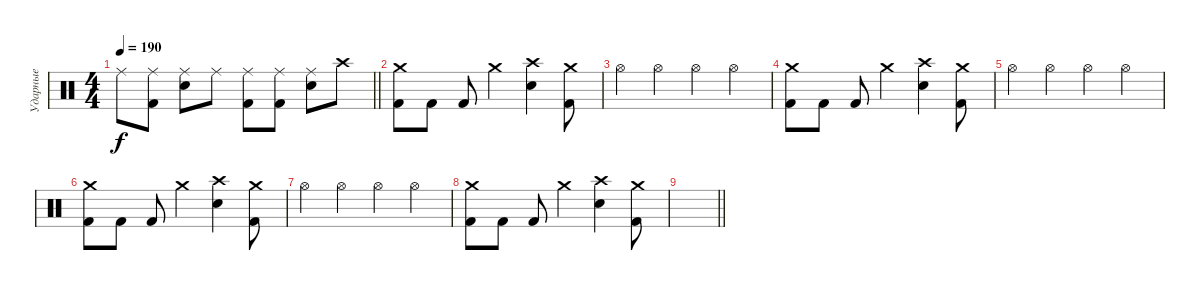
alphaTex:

\track ("Ударные" "Ударные") {instrument percussion}
\staff {score}
\articulation defaults
\ts (4 4)
\tempo 190
\clef neutral
\barLineRight lightlight
\ks c "Ride (middle)".8{dy f}
("Ride (middle)" "Kick (hit) 2").8 ("Ride (middle)" "Electric Snare (hit)").8 "Ride (middle)".8 ("Ride (middle)" "Kick (hit) 2").8 ("Ride (middle)" "Kick (hit) 2").8 ("Ride (middle)" "Electric Snare (hit)").8 "Crash high (hit)".8 |
("Crash medium (hit)" "Kick (hit) 2").8 "Kick (hit) 2".8 "Kick (hit) 2".8 "Crash medium (hit)".4 ("Crash high (hit)" "Electric Snare (hit)").4 ("Crash medium (hit)" "Kick (hit) 2").8 |
"Hi-Hat (open)".4 "Hi-Hat (open)".4 "Hi-Hat (open)".4 "Hi-Hat (open)".4 |
("Crash medium (hit)" "Kick (hit) 2").8 "Kick (hit) 2".8 "Kick (hit) 2".8 "Crash medium (hit)".4 ("Crash high (hit)" "Electric Snare (hit)").4 ("Crash medium (hit)" "Kick (hit) 2").8 |
"Hi-Hat (open)".4 "Hi-Hat (open)".4 "Hi-Hat (open)".4 "Hi-Hat (open)".4 |
("Crash medium (hit)" "Kick (hit) 2").8 "Kick (hit) 2".8 "Kick (hit) 2".8 "Crash medium (hit)".4 ("Crash high (hit)" "Electric Snare (hit)").4 ("Crash medium (hit)" "Kick (hit) 2").8 |
"Hi-Hat (open)".4 "Hi-Hat (open)".4 "Hi-Hat (open)".4 "Hi-Hat (open)".4 |
("Crash medium (hit)" "Kick (hit) 2").8 "Kick (hit) 2".8 "Kick (hit) 2".8 "Crash medium (hit)".4 ("Crash high (hit)" "Electric Snare (hit)").4 ("Crash medium (hit)" "Kick (hit) 2").8 |
\barLineRight lightlight
